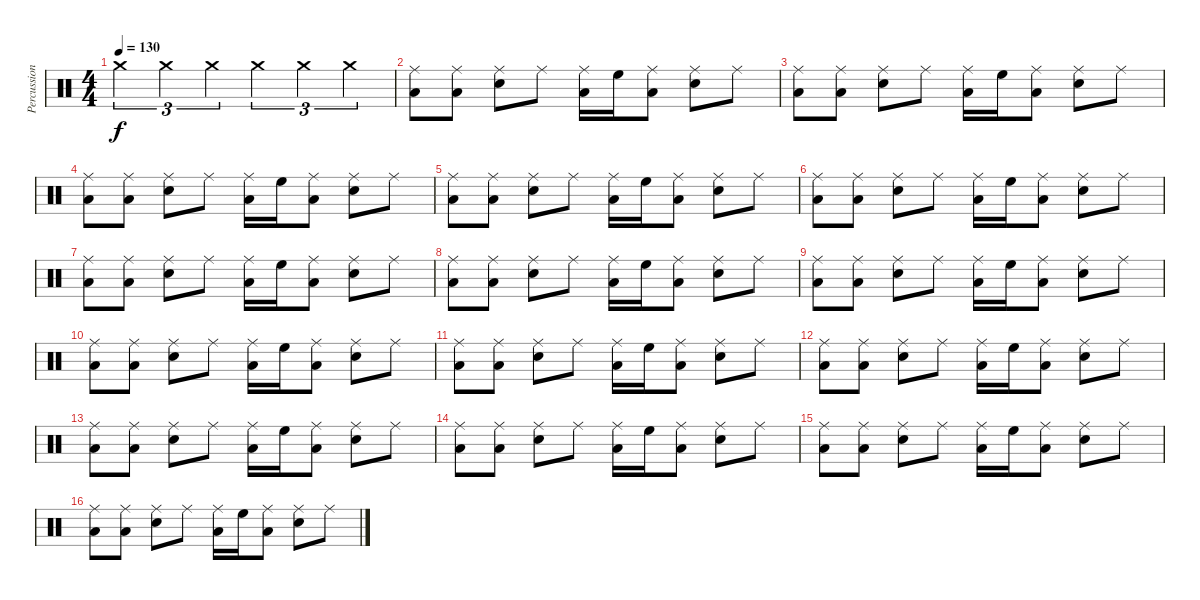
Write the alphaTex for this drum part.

\track ("Percussions" "Percussion") {instrument percussion}
\staff {score}
\articulation defaults
\ts (4 4)
\tempo 130
\clef neutral
\ks c "Crash medium (hit)".4{tu (3 2) dy f} "Crash medium (hit)".4{tu (3 2)} "Crash medium (hit)".4{tu (3 2)} "Crash medium (hit)".4{tu (3 2)} "Crash medium (hit)".4{tu (3 2)} "Crash medium (hit)".4{tu (3 2)}
|
("Low Floor Tom (hit)" "Ride (middle)").8 ("Low Floor Tom (hit)" "Ride (middle)").8 ("Electric Snare (hit)" "Ride (middle)").8 "Ride (middle)".8 ("Low Floor Tom (hit)" "Ride (middle)").16 "High Floor Tom (hit)".16 ("Low Floor Tom (hit)" "Ride (middle)").8 ("Electric Snare (hit)" "Ride (middle)").8 "Ride (middle)".8 |
("Low Floor Tom (hit)" "Ride (middle)").8 ("Low Floor Tom (hit)" "Ride (middle)").8 ("Electric Snare (hit)" "Ride (middle)").8 "Ride (middle)".8 ("Low Floor Tom (hit)" "Ride (middle)").16 "High Floor Tom (hit)".16 ("Low Floor Tom (hit)" "Ride (middle)").8 ("Electric Snare (hit)" "Ride (middle)").8 "Ride (middle)".8 |
("Low Floor Tom (hit)" "Ride (middle)").8 ("Low Floor Tom (hit)" "Ride (middle)").8 ("Electric Snare (hit)" "Ride (middle)").8 "Ride (middle)".8 ("Low Floor Tom (hit)" "Ride (middle)").16 "High Floor Tom (hit)".16 ("Low Floor Tom (hit)" "Ride (middle)").8 ("Electric Snare (hit)" "Ride (middle)").8 "Ride (middle)".8 |
("Low Floor Tom (hit)" "Ride (middle)").8 ("Low Floor Tom (hit)" "Ride (middle)").8 ("Electric Snare (hit)" "Ride (middle)").8 "Ride (middle)".8 ("Low Floor Tom (hit)" "Ride (middle)").16 "High Floor Tom (hit)".16 ("Low Floor Tom (hit)" "Ride (middle)").8 ("Electric Snare (hit)" "Ride (middle)").8 "Ride (middle)".8 |
("Low Floor Tom (hit)" "Ride (middle)").8 ("Low Floor Tom (hit)" "Ride (middle)").8 ("Electric Snare (hit)" "Ride (middle)").8 "Ride (middle)".8 ("Low Floor Tom (hit)" "Ride (middle)").16 "High Floor Tom (hit)".16 ("Low Floor Tom (hit)" "Ride (middle)").8 ("Electric Snare (hit)" "Ride (middle)").8 "Ride (middle)".8 |
("Low Floor Tom (hit)" "Ride (middle)").8 ("Low Floor Tom (hit)" "Ride (middle)").8 ("Electric Snare (hit)" "Ride (middle)").8 "Ride (middle)".8 ("Low Floor Tom (hit)" "Ride (middle)").16 "High Floor Tom (hit)".16 ("Low Floor Tom (hit)" "Ride (middle)").8 ("Electric Snare (hit)" "Ride (middle)").8 "Ride (middle)".8 |
("Low Floor Tom (hit)" "Ride (middle)").8 ("Low Floor Tom (hit)" "Ride (middle)").8 ("Electric Snare (hit)" "Ride (middle)").8 "Ride (middle)".8 ("Low Floor Tom (hit)" "Ride (middle)").16 "High Floor Tom (hit)".16 ("Low Floor Tom (hit)" "Ride (middle)").8 ("Electric Snare (hit)" "Ride (middle)").8 "Ride (middle)".8 |
("Low Floor Tom (hit)" "Ride (middle)").8 ("Low Floor Tom (hit)" "Ride (middle)").8 ("Electric Snare (hit)" "Ride (middle)").8 "Ride (middle)".8 ("Low Floor Tom (hit)" "Ride (middle)").16 "High Floor Tom (hit)".16 ("Low Floor Tom (hit)" "Ride (middle)").8 ("Electric Snare (hit)" "Ride (middle)").8 "Ride (middle)".8 |
("Low Floor Tom (hit)" "Ride (middle)").8 ("Low Floor Tom (hit)" "Ride (middle)").8 ("Electric Snare (hit)" "Ride (middle)").8 "Ride (middle)".8 ("Low Floor Tom (hit)" "Ride (middle)").16 "High Floor Tom (hit)".16 ("Low Floor Tom (hit)" "Ride (middle)").8 ("Electric Snare (hit)" "Ride (middle)").8 "Ride (middle)".8 |
("Low Floor Tom (hit)" "Ride (middle)").8 ("Low Floor Tom (hit)" "Ride (middle)").8 ("Electric Snare (hit)" "Ride (middle)").8 "Ride (middle)".8 ("Low Floor Tom (hit)" "Ride (middle)").16 "High Floor Tom (hit)".16 ("Low Floor Tom (hit)" "Ride (middle)").8 ("Electric Snare (hit)" "Ride (middle)").8 "Ride (middle)".8 |
("Low Floor Tom (hit)" "Ride (middle)").8 ("Low Floor Tom (hit)" "Ride (middle)").8 ("Electric Snare (hit)" "Ride (middle)").8 "Ride (middle)".8 ("Low Floor Tom (hit)" "Ride (middle)").16 "High Floor Tom (hit)".16 ("Low Floor Tom (hit)" "Ride (middle)").8 ("Electric Snare (hit)" "Ride (middle)").8 "Ride (middle)".8 |
("Low Floor Tom (hit)" "Ride (middle)").8 ("Low Floor Tom (hit)" "Ride (middle)").8 ("Electric Snare (hit)" "Ride (middle)").8 "Ride (middle)".8 ("Low Floor Tom (hit)" "Ride (middle)").16 "High Floor Tom (hit)".16 ("Low Floor Tom (hit)" "Ride (middle)").8 ("Electric Snare (hit)" "Ride (middle)").8 "Ride (middle)".8 |
("Low Floor Tom (hit)" "Ride (middle)").8 ("Low Floor Tom (hit)" "Ride (middle)").8 ("Electric Snare (hit)" "Ride (middle)").8 "Ride (middle)".8 ("Low Floor Tom (hit)" "Ride (middle)").16 "High Floor Tom (hit)".16 ("Low Floor Tom (hit)" "Ride (middle)").8 ("Electric Snare (hit)" "Ride (middle)").8 "Ride (middle)".8 |
("Low Floor Tom (hit)" "Ride (middle)").8 ("Low Floor Tom (hit)" "Ride (middle)").8 ("Electric Snare (hit)" "Ride (middle)").8 "Ride (middle)".8 ("Low Floor Tom (hit)" "Ride (middle)").16 "High Floor Tom (hit)".16 ("Low Floor Tom (hit)" "Ride (middle)").8 ("Electric Snare (hit)" "Ride (middle)").8 "Ride (middle)".8 |
("Low Floor Tom (hit)" "Ride (middle)").8 ("Low Floor Tom (hit)" "Ride (middle)").8 ("Electric Snare (hit)" "Ride (middle)").8 "Ride (middle)".8 ("Low Floor Tom (hit)" "Ride (middle)").16 "High Floor Tom (hit)".16 ("Low Floor Tom (hit)" "Ride (middle)").8 ("Electric Snare (hit)" "Ride (middle)").8 "Ride (middle)".8
